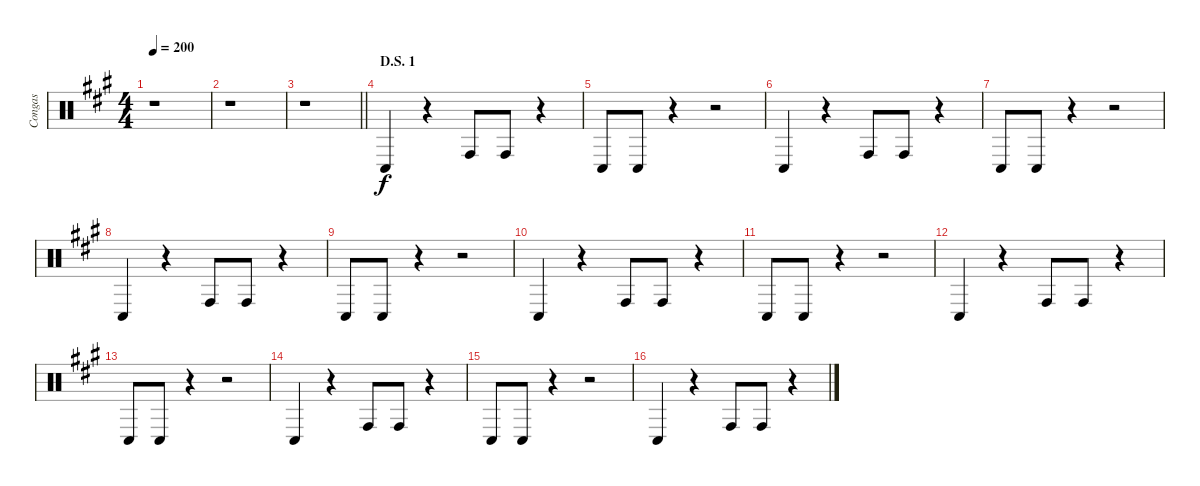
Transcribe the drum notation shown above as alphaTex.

\track ("Congas" "Congas") {instrument percussion}
\staff {score}
\articulation defaults
\ts (4 4)
\tempo 200
\clef neutral
\ks a
r.1{dy f} |
r.1 |
\barLineRight lightlight
r.1 |
\section ("" "D.S. 1")
"Conga low (hit)".4 r.4 "Conga high (hit)".8 "Conga high (hit)".8 r.4 |
"Conga low (hit)".8 "Conga low (hit)".8 r.4 r.2 |
"Conga low (hit)".4 r.4 "Conga high (hit)".8 "Conga high (hit)".8 r.4 |
"Conga low (hit)".8 "Conga low (hit)".8 r.4 r.2 |
"Conga low (hit)".4 r.4 "Conga high (hit)".8 "Conga high (hit)".8 r.4 |
"Conga low (hit)".8 "Conga low (hit)".8 r.4 r.2 |
"Conga low (hit)".4 r.4 "Conga high (hit)".8 "Conga high (hit)".8 r.4 |
"Conga low (hit)".8 "Conga low (hit)".8 r.4 r.2 |
"Conga low (hit)".4 r.4 "Conga high (hit)".8 "Conga high (hit)".8 r.4 |
"Conga low (hit)".8 "Conga low (hit)".8 r.4 r.2 |
"Conga low (hit)".4 r.4 "Conga high (hit)".8 "Conga high (hit)".8 r.4 |
"Conga low (hit)".8 "Conga low (hit)".8 r.4 r.2 |
"Conga low (hit)".4 r.4 "Conga high (hit)".8 "Conga high (hit)".8 r.4
